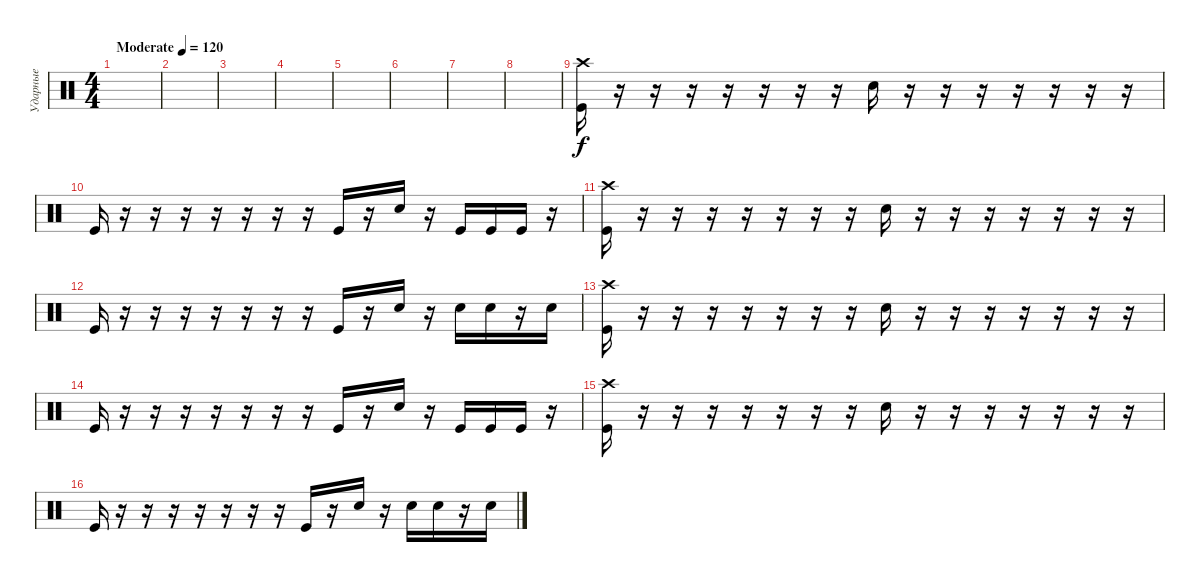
\track ("Ударные" "Ударные") {instrument percussion}
\staff {score}
\articulation defaults
\ts (4 4)
\tempo (120 "Moderate")
\clef neutral
\ks c
|
|
|
|
|
|
|
|
("Crash high (hit)" "Kick (hit)").16 r.16 r.16 r.16 r.16 r.16 r.16 r.16 "Electric Snare (hit)".16 r.16 r.16 r.16 r.16 r.16 r.16 r.16 |
"Kick (hit)".16 r.16 r.16 r.16 r.16 r.16 r.16 r.16 "Kick (hit)".16 r.16 "Electric Snare (hit)".16 r.16 "Kick (hit)".16 "Kick (hit)".16 "Kick (hit)".16 r.16 |
("Crash high (hit)" "Kick (hit)").16 r.16 r.16 r.16 r.16 r.16 r.16 r.16 "Electric Snare (hit)".16 r.16 r.16 r.16 r.16 r.16 r.16 r.16 |
"Kick (hit)".16 r.16 r.16 r.16 r.16 r.16 r.16 r.16 "Kick (hit)".16 r.16 "Electric Snare (hit)".16 r.16 "Electric Snare (hit)".16 "Electric Snare (hit)".16 r.16 "Electric Snare (hit)".16 |
("Crash high (hit)" "Kick (hit)").16 r.16 r.16 r.16 r.16 r.16 r.16 r.16 "Electric Snare (hit)".16 r.16 r.16 r.16 r.16 r.16 r.16 r.16 |
"Kick (hit)".16 r.16 r.16 r.16 r.16 r.16 r.16 r.16 "Kick (hit)".16 r.16 "Electric Snare (hit)".16 r.16 "Kick (hit)".16 "Kick (hit)".16 "Kick (hit)".16 r.16 |
("Crash high (hit)" "Kick (hit)").16 r.16 r.16 r.16 r.16 r.16 r.16 r.16 "Electric Snare (hit)".16 r.16 r.16 r.16 r.16 r.16 r.16 r.16 |
"Kick (hit)".16 r.16 r.16 r.16 r.16 r.16 r.16 r.16 "Kick (hit)".16 r.16 "Electric Snare (hit)".16 r.16 "Electric Snare (hit)".16 "Electric Snare (hit)".16 r.16 "Electric Snare (hit)".16
